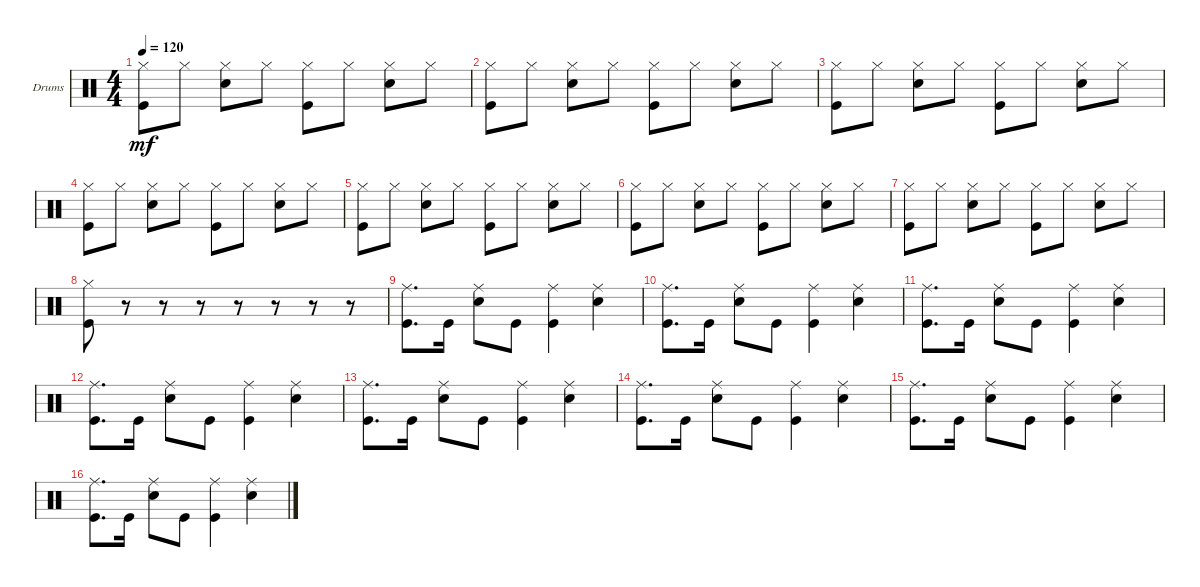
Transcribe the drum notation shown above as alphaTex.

\defaultSystemsLayout 4
\bracketExtendMode groupsimilarinstruments
\firstSystemTrackNameOrientation horizontal
\otherSystemsTrackNameOrientation horizontal
\track ("Drumkit             ( Ударные )" "Drums") {instrument percussion}
\staff {score}
\articulation defaults
\ts (4 4)
\tempo 120
\clef neutral
\ks c
("Hi-Hat (closed)" "Kick (hit)").8{dy mf} "Hi-Hat (closed)".8 ("Hi-Hat (closed)" "Snare (hit) 2").8 "Hi-Hat (closed)".8 ("Hi-Hat (closed)" "Kick (hit)").8 "Hi-Hat (closed)".8 ("Hi-Hat (closed)" "Snare (hit) 2").8 "Hi-Hat (closed)".8 |
("Hi-Hat (closed)" "Kick (hit)").8 "Hi-Hat (closed)".8 ("Hi-Hat (closed)" "Snare (hit) 2").8 "Hi-Hat (closed)".8 ("Hi-Hat (closed)" "Kick (hit)").8 "Hi-Hat (closed)".8 ("Hi-Hat (closed)" "Snare (hit) 2").8 "Hi-Hat (closed)".8 |
("Hi-Hat (closed)" "Kick (hit)").8 "Hi-Hat (closed)".8 ("Hi-Hat (closed)" "Snare (hit) 2").8 "Hi-Hat (closed)".8 ("Hi-Hat (closed)" "Kick (hit)").8 "Hi-Hat (closed)".8 ("Hi-Hat (closed)" "Snare (hit) 2").8 "Hi-Hat (closed)".8 |
("Hi-Hat (closed)" "Kick (hit)").8 "Hi-Hat (closed)".8 ("Hi-Hat (closed)" "Snare (hit) 2").8 "Hi-Hat (closed)".8 ("Hi-Hat (closed)" "Kick (hit)").8 "Hi-Hat (closed)".8 ("Hi-Hat (closed)" "Snare (hit) 2").8 "Hi-Hat (closed)".8 |
("Hi-Hat (closed)" "Kick (hit)").8 "Hi-Hat (closed)".8 ("Hi-Hat (closed)" "Snare (hit) 2").8 "Hi-Hat (closed)".8 ("Hi-Hat (closed)" "Kick (hit)").8 "Hi-Hat (closed)".8 ("Hi-Hat (closed)" "Snare (hit) 2").8 "Hi-Hat (closed)".8 |
("Hi-Hat (closed)" "Kick (hit)").8 "Hi-Hat (closed)".8 ("Hi-Hat (closed)" "Snare (hit) 2").8 "Hi-Hat (closed)".8 ("Hi-Hat (closed)" "Kick (hit)").8 "Hi-Hat (closed)".8 ("Hi-Hat (closed)" "Snare (hit) 2").8 "Hi-Hat (closed)".8 |
("Hi-Hat (closed)" "Kick (hit)").8 "Hi-Hat (closed)".8 ("Hi-Hat (closed)" "Snare (hit) 2").8 "Hi-Hat (closed)".8 ("Hi-Hat (closed)" "Kick (hit)").8 "Hi-Hat (closed)".8 ("Hi-Hat (closed)" "Snare (hit) 2").8 "Hi-Hat (closed)".8 |
("Hi-Hat (closed)" "Kick (hit)").8 r.8 r.8 r.8 r.8 r.8 r.8 r.8 |
("Kick (hit)" "Ride (middle)").8{d} "Kick (hit)".16 ("Snare (hit) 2" "Ride (middle)").8 "Kick (hit)".8 ("Kick (hit)" "Ride (middle)").4 ("Ride (middle)" "Snare (hit) 2").4 |
("Kick (hit)" "Ride (middle)").8{d} "Kick (hit)".16 ("Snare (hit) 2" "Ride (middle)").8 "Kick (hit)".8 ("Kick (hit)" "Ride (middle)").4 ("Ride (middle)" "Snare (hit) 2").4 |
("Kick (hit)" "Ride (middle)").8{d} "Kick (hit)".16 ("Snare (hit) 2" "Ride (middle)").8 "Kick (hit)".8 ("Kick (hit)" "Ride (middle)").4 ("Ride (middle)" "Snare (hit) 2").4 |
("Kick (hit)" "Ride (middle)").8{d} "Kick (hit)".16 ("Snare (hit) 2" "Ride (middle)").8 "Kick (hit)".8 ("Kick (hit)" "Ride (middle)").4 ("Ride (middle)" "Snare (hit) 2").4 |
("Kick (hit)" "Ride (middle)").8{d} "Kick (hit)".16 ("Snare (hit) 2" "Ride (middle)").8 "Kick (hit)".8 ("Kick (hit)" "Ride (middle)").4 ("Ride (middle)" "Snare (hit) 2").4 |
("Kick (hit)" "Ride (middle)").8{d} "Kick (hit)".16 ("Snare (hit) 2" "Ride (middle)").8 "Kick (hit)".8 ("Kick (hit)" "Ride (middle)").4 ("Ride (middle)" "Snare (hit) 2").4 |
("Kick (hit)" "Ride (middle)").8{d} "Kick (hit)".16 ("Snare (hit) 2" "Ride (middle)").8 "Kick (hit)".8 ("Kick (hit)" "Ride (middle)").4 ("Ride (middle)" "Snare (hit) 2").4 |
("Kick (hit)" "Ride (middle)").8{d} "Kick (hit)".16 ("Snare (hit) 2" "Ride (middle)").8 "Kick (hit)".8 ("Kick (hit)" "Ride (middle)").4 ("Ride (middle)" "Snare (hit) 2").4
